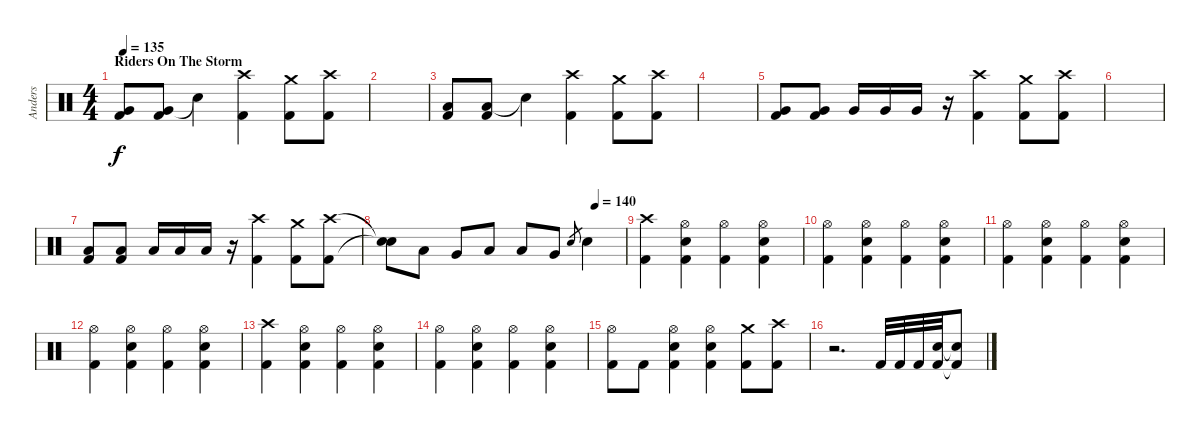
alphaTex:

\track ("Anders" "Anders") {instrument percussion}
\staff {score}
\articulation defaults
\ts (4 4)
\section ("" "Riders On The Storm")
\tempo 135
\clef neutral
\ks c
("Very Low Tom (hit)" "Kick (hit) 2").8{dy f} ("Very Low Tom (hit)" "Kick (hit) 2").8 "Snare (hit)"{t}.4 ("Crash high (hit)" "Kick (hit) 2").4 ("Crash medium (hit)" "Kick (hit) 2").8 ("Crash high (hit)" "Kick (hit) 2").8 |
|
("Low Tom (hit)" "Kick (hit) 2").8 ("Low Tom (hit)" "Kick (hit) 2").8 "Snare (hit)"{t}.4 ("Crash high (hit)" "Kick (hit) 2").4 ("Crash medium (hit)" "Kick (hit) 2").8 ("Crash high (hit)" "Kick (hit) 2").8 |
|
("Very Low Tom (hit)" "Kick (hit) 2").8 ("Very Low Tom (hit)" "Kick (hit) 2").8 "Very Low Tom (hit)".16 "Very Low Tom (hit)".16 "Very Low Tom (hit)".16 r.16 ("Crash high (hit)" "Kick (hit) 2").4 ("Crash medium (hit)" "Kick (hit) 2").8 ("Crash high (hit)" "Kick (hit) 2").8 |
|
("Low Tom (hit)" "Kick (hit) 2").8 ("Low Tom (hit)" "Kick (hit) 2").8 "Low Tom (hit)".16 "Low Tom (hit)".16 "Low Tom (hit)".16 r.16 ("Crash high (hit)" "Kick (hit) 2").4 ("Crash medium (hit)" "Kick (hit) 2").8 ("Crash high (hit)" "Kick (hit) 2").8 |
\tempo (140 0.875)
("Snare (hit)"{t} "Snare (hit)"{t}).8 "Low Tom (hit)".8 "Very Low Tom (hit)".8 "Low Floor Tom (hit)".8 "Low Tom (hit)".8 "Very Low Tom (hit)".8 "Electric Snare (hit)".8{gr} "Electric Snare (hit)".4 |
("Crash high (hit)" "Kick (hit) 2").4 ("Hi-Hat (open)" "Electric Snare (hit)" "Kick (hit) 2").4 ("Hi-Hat (open)" "Kick (hit) 2").4 ("Hi-Hat (open)" "Electric Snare (hit)" "Kick (hit) 2").4 |
("Hi-Hat (open)" "Kick (hit) 2").4 ("Hi-Hat (open)" "Electric Snare (hit)" "Kick (hit) 2").4 ("Hi-Hat (open)" "Kick (hit) 2").4 ("Hi-Hat (open)" "Electric Snare (hit)" "Kick (hit) 2").4 |
("Hi-Hat (open)" "Kick (hit) 2").4 ("Hi-Hat (open)" "Electric Snare (hit)" "Kick (hit) 2").4 ("Hi-Hat (open)" "Kick (hit) 2").4 ("Hi-Hat (open)" "Electric Snare (hit)" "Kick (hit) 2").4 |
("Hi-Hat (open)" "Kick (hit) 2").4 ("Hi-Hat (open)" "Electric Snare (hit)" "Kick (hit) 2").4 ("Hi-Hat (open)" "Kick (hit) 2").4 ("Hi-Hat (open)" "Electric Snare (hit)" "Kick (hit) 2").4 |
("Crash high (hit)" "Kick (hit) 2").4 ("Hi-Hat (open)" "Electric Snare (hit)" "Kick (hit) 2").4 ("Hi-Hat (open)" "Kick (hit) 2").4 ("Hi-Hat (open)" "Electric Snare (hit)" "Kick (hit) 2").4 |
("Hi-Hat (open)" "Kick (hit) 2").4 ("Hi-Hat (open)" "Electric Snare (hit)" "Kick (hit) 2").4 ("Hi-Hat (open)" "Kick (hit) 2").4 ("Hi-Hat (open)" "Electric Snare (hit)" "Kick (hit) 2").4 |
("Hi-Hat (open)" "Kick (hit) 2").8 "Kick (hit) 2".8 ("Hi-Hat (open)" "Electric Snare (hit)" "Kick (hit) 2").4 ("Hi-Hat (open)" "Electric Snare (hit)" "Kick (hit) 2").4 ("Crash medium (hit)" "Kick (hit) 2").8 ("Crash high (hit)" "Kick (hit) 2").8 |
r.2{d} "Kick (hit) 2".32 "Kick (hit) 2".32 "Kick (hit) 2".32 ("Electric Snare (hit)" "Kick (hit) 2").32 ("Electric Snare (hit)"{t} "Kick (hit) 2"{t}).8
